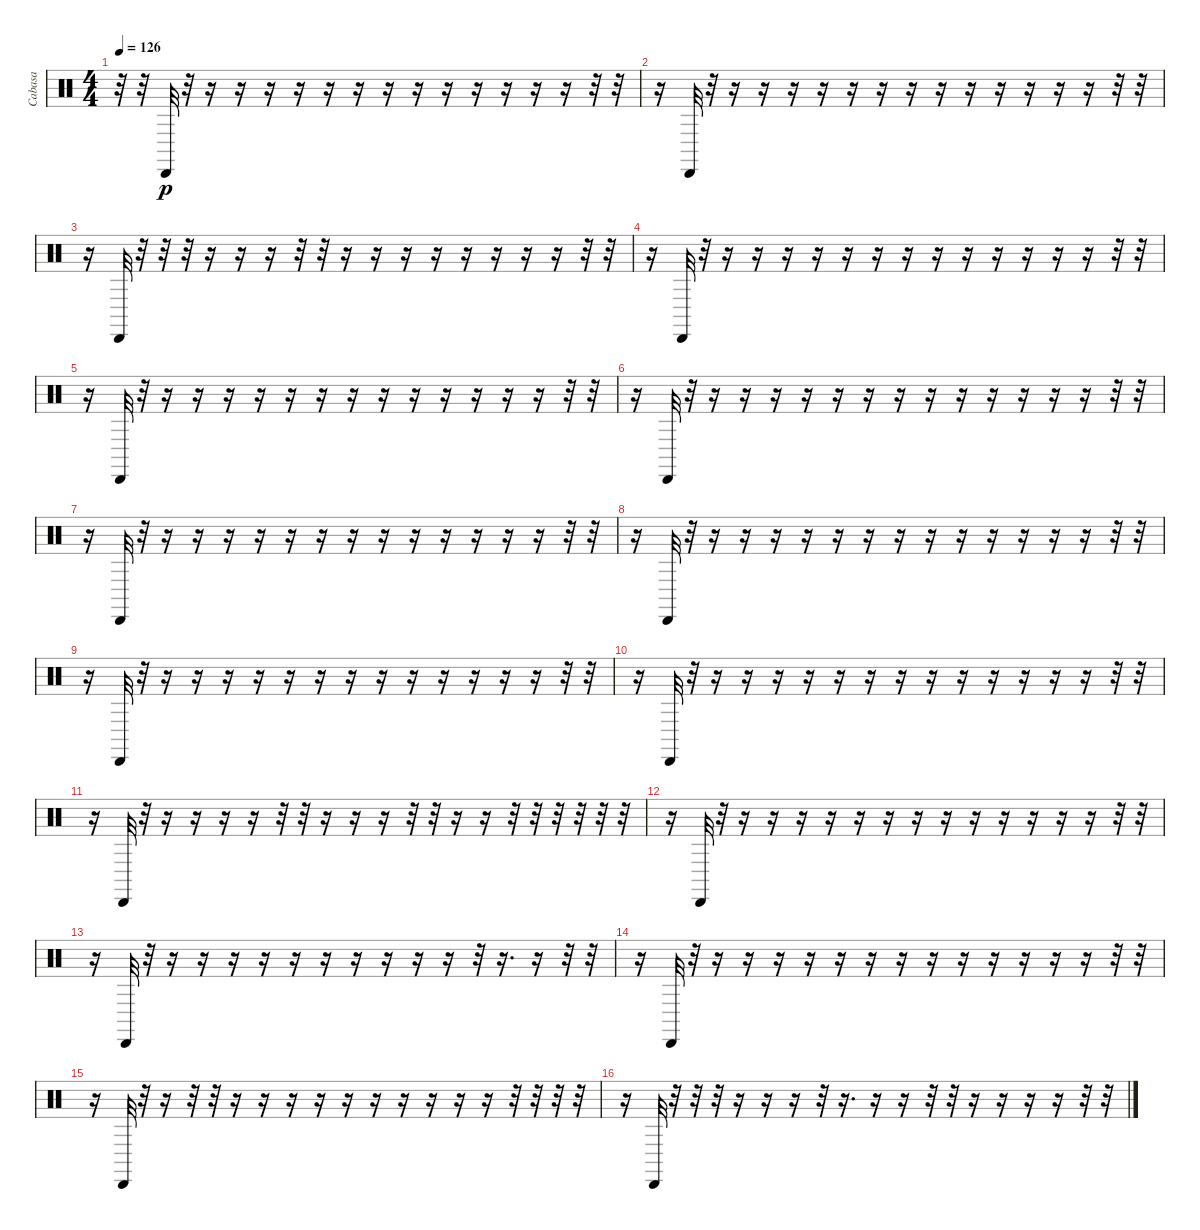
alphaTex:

\track ("Cabasa" "Cabasa") {instrument percussion}
\staff {score}
\articulation defaults
\ts (4 4)
\tempo 126
\clef neutral
\ks c
r.32{dy p} r.32 "Cabasa (hit)".32 r.32 r.16 r.16 r.16 r.16 r.16 r.16 r.16 r.16 r.16 r.16 r.16 r.16 r.16 r.32 r.32 |
r.16 "Cabasa (hit)".32 r.32 r.16 r.16 r.16 r.16 r.16 r.16 r.16 r.16 r.16 r.16 r.16 r.16 r.16 r.32 r.32 |
r.16 "Cabasa (hit)".32 r.32 r.32 r.32 r.16 r.16 r.16 r.32 r.32 r.16 r.16 r.16 r.16 r.16 r.16 r.16 r.16 r.32 r.32 |
r.16 "Cabasa (hit)".32 r.32 r.16 r.16 r.16 r.16 r.16 r.16 r.16 r.16 r.16 r.16 r.16 r.16 r.16 r.32 r.32 |
r.16 "Cabasa (hit)".32 r.32 r.16 r.16 r.16 r.16 r.16 r.16 r.16 r.16 r.16 r.16 r.16 r.16 r.16 r.32 r.32 |
r.16 "Cabasa (hit)".32 r.32 r.16 r.16 r.16 r.16 r.16 r.16 r.16 r.16 r.16 r.16 r.16 r.16 r.16 r.32 r.32 |
r.16 "Cabasa (hit)".32 r.32 r.16 r.16 r.16 r.16 r.16 r.16 r.16 r.16 r.16 r.16 r.16 r.16 r.16 r.32 r.32 |
r.16 "Cabasa (hit)".32 r.32 r.16 r.16 r.16 r.16 r.16 r.16 r.16 r.16 r.16 r.16 r.16 r.16 r.16 r.32 r.32 |
r.16 "Cabasa (hit)".32 r.32 r.16 r.16 r.16 r.16 r.16 r.16 r.16 r.16 r.16 r.16 r.16 r.16 r.16 r.32 r.32 |
r.16 "Cabasa (hit)".32 r.32 r.16 r.16 r.16 r.16 r.16 r.16 r.16 r.16 r.16 r.16 r.16 r.16 r.16 r.32 r.32 |
r.16 "Cabasa (hit)".32 r.32 r.16 r.16 r.16 r.16 r.32 r.32 r.16 r.16 r.16 r.32 r.32 r.16 r.16 r.32 r.32 r.32 r.32 r.32 r.32 |
r.16 "Cabasa (hit)".32 r.32 r.16 r.16 r.16 r.16 r.16 r.16 r.16 r.16 r.16 r.16 r.16 r.16 r.16 r.32 r.32 |
r.16 "Cabasa (hit)".32 r.32 r.16 r.16 r.16 r.16 r.16 r.16 r.16 r.16 r.16 r.16 r.32 r.16{d} r.16 r.32 r.32 |
r.16 "Cabasa (hit)".32 r.32 r.16 r.16 r.16 r.16 r.16 r.16 r.16 r.16 r.16 r.16 r.16 r.16 r.16 r.32 r.32 |
r.16 "Cabasa (hit)".32 r.32 r.16 r.32 r.32 r.16 r.16 r.16 r.16 r.16 r.16 r.16 r.16 r.16 r.16 r.32 r.32 r.32 r.32 |
r.16 "Cabasa (hit)".32 r.32 r.32 r.32 r.16 r.16 r.16 r.32 r.16{d} r.16 r.16 r.32 r.32 r.16 r.16 r.16 r.16 r.32 r.32
